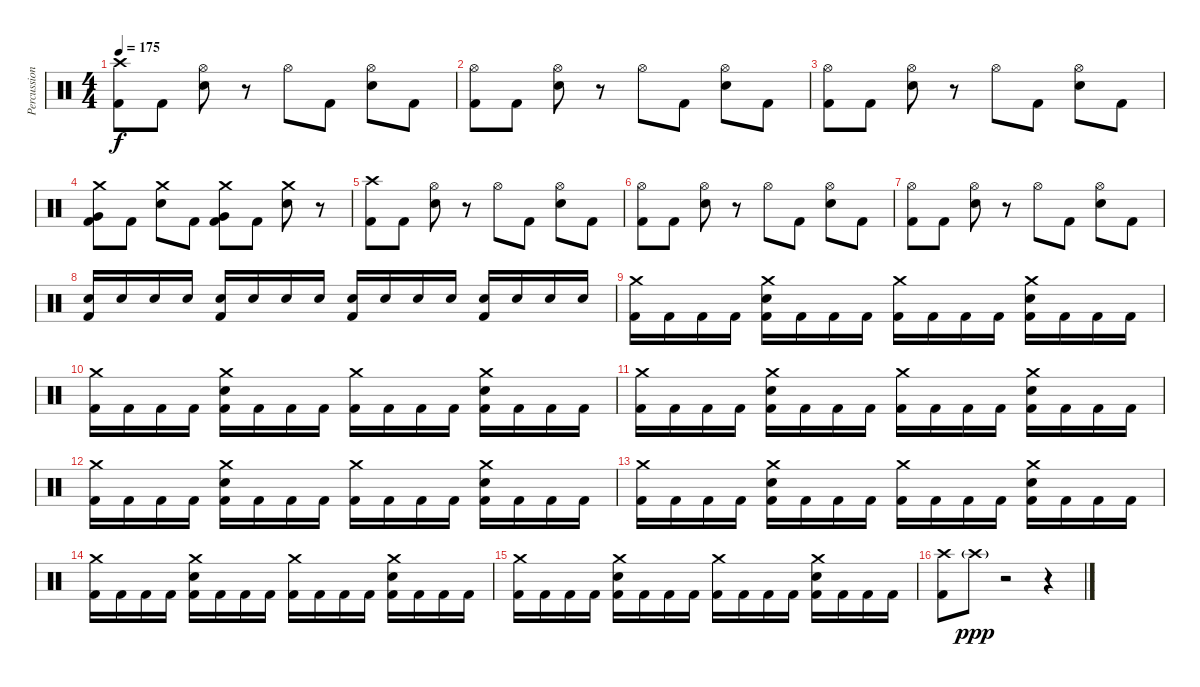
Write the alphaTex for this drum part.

\track ("Percussion" "Percussion") {instrument percussion}
\staff {score}
\articulation defaults
\ts (4 4)
\tempo 175
\clef neutral
\ks c
("Kick (hit) 2" "Crash high (hit)").8{dy f} "Kick (hit) 2".8 ("Electric Snare (hit)" "Hi-Hat (open)").8 r.8 "Hi-Hat (open)".8 "Kick (hit) 2".8 ("Electric Snare (hit)" "Hi-Hat (open)").8 "Kick (hit) 2".8 |
("Kick (hit) 2" "Hi-Hat (open)").8 "Kick (hit) 2".8 ("Electric Snare (hit)" "Hi-Hat (open)").8 r.8 "Hi-Hat (open)".8 "Kick (hit) 2".8 ("Electric Snare (hit)" "Hi-Hat (open)").8 "Kick (hit) 2".8 |
("Kick (hit) 2" "Hi-Hat (open)").8 "Kick (hit) 2".8 ("Electric Snare (hit)" "Hi-Hat (open)").8 r.8 "Hi-Hat (open)".8 "Kick (hit) 2".8 ("Electric Snare (hit)" "Hi-Hat (open)").8 "Kick (hit) 2".8 |
("Kick (hit) 2" "Very Low Tom (hit)" "Crash medium (hit)").8 "Kick (hit) 2".8 ("Electric Snare (hit)" "Crash medium (hit)").8 "Kick (hit) 2".8 ("Kick (hit) 2" "Very Low Tom (hit)" "Crash medium (hit)").8 "Kick (hit) 2".8 ("Electric Snare (hit)" "Crash medium (hit)").8 r.8 |
("Kick (hit) 2" "Crash high (hit)").8 "Kick (hit) 2".8 ("Electric Snare (hit)" "Hi-Hat (open)").8 r.8 "Hi-Hat (open)".8 "Kick (hit) 2".8 ("Electric Snare (hit)" "Hi-Hat (open)").8 "Kick (hit) 2".8 |
("Kick (hit) 2" "Hi-Hat (open)").8 "Kick (hit) 2".8 ("Electric Snare (hit)" "Hi-Hat (open)").8 r.8 "Hi-Hat (open)".8 "Kick (hit) 2".8 ("Electric Snare (hit)" "Hi-Hat (open)").8 "Kick (hit) 2".8 |
("Kick (hit) 2" "Hi-Hat (open)").8 "Kick (hit) 2".8 ("Electric Snare (hit)" "Hi-Hat (open)").8 r.8 "Hi-Hat (open)".8 "Kick (hit) 2".8 ("Electric Snare (hit)" "Hi-Hat (open)").8 "Kick (hit) 2".8 |
("Kick (hit) 2" "Electric Snare (hit)").16 "Electric Snare (hit)".16 "Electric Snare (hit)".16 "Electric Snare (hit)".16 ("Kick (hit) 2" "Electric Snare (hit)").16 "Electric Snare (hit)".16 "Electric Snare (hit)".16 "Electric Snare (hit)".16 ("Kick (hit) 2" "Electric Snare (hit)").16 "Electric Snare (hit)".16 "Electric Snare (hit)".16 "Electric Snare (hit)".16 ("Kick (hit) 2" "Electric Snare (hit)").16 "Electric Snare (hit)".16 "Electric Snare (hit)".16 "Electric Snare (hit)".16 |
("Kick (hit) 2" "Crash medium (hit)").16 "Kick (hit) 2".16 "Kick (hit) 2".16 "Kick (hit) 2".16 ("Kick (hit) 2" "Electric Snare (hit)" "Crash medium (hit)").16 "Kick (hit) 2".16 "Kick (hit) 2".16 "Kick (hit) 2".16 ("Kick (hit) 2" "Crash medium (hit)").16 "Kick (hit) 2".16 "Kick (hit) 2".16 "Kick (hit) 2".16 ("Kick (hit) 2" "Electric Snare (hit)" "Crash medium (hit)").16 "Kick (hit) 2".16 "Kick (hit) 2".16 "Kick (hit) 2".16 |
("Kick (hit) 2" "Crash medium (hit)").16 "Kick (hit) 2".16 "Kick (hit) 2".16 "Kick (hit) 2".16 ("Kick (hit) 2" "Electric Snare (hit)" "Crash medium (hit)").16 "Kick (hit) 2".16 "Kick (hit) 2".16 "Kick (hit) 2".16 ("Kick (hit) 2" "Crash medium (hit)").16 "Kick (hit) 2".16 "Kick (hit) 2".16 "Kick (hit) 2".16 ("Kick (hit) 2" "Electric Snare (hit)" "Crash medium (hit)").16 "Kick (hit) 2".16 "Kick (hit) 2".16 "Kick (hit) 2".16 |
("Kick (hit) 2" "Crash medium (hit)").16 "Kick (hit) 2".16 "Kick (hit) 2".16 "Kick (hit) 2".16 ("Kick (hit) 2" "Electric Snare (hit)" "Crash medium (hit)").16 "Kick (hit) 2".16 "Kick (hit) 2".16 "Kick (hit) 2".16 ("Kick (hit) 2" "Crash medium (hit)").16 "Kick (hit) 2".16 "Kick (hit) 2".16 "Kick (hit) 2".16 ("Kick (hit) 2" "Electric Snare (hit)" "Crash medium (hit)").16 "Kick (hit) 2".16 "Kick (hit) 2".16 "Kick (hit) 2".16 |
("Kick (hit) 2" "Crash medium (hit)").16 "Kick (hit) 2".16 "Kick (hit) 2".16 "Kick (hit) 2".16 ("Kick (hit) 2" "Electric Snare (hit)" "Crash medium (hit)").16 "Kick (hit) 2".16 "Kick (hit) 2".16 "Kick (hit) 2".16 ("Kick (hit) 2" "Crash medium (hit)").16 "Kick (hit) 2".16 "Kick (hit) 2".16 "Kick (hit) 2".16 ("Kick (hit) 2" "Electric Snare (hit)" "Crash medium (hit)").16 "Kick (hit) 2".16 "Kick (hit) 2".16 "Kick (hit) 2".16 |
("Kick (hit) 2" "Crash medium (hit)").16 "Kick (hit) 2".16 "Kick (hit) 2".16 "Kick (hit) 2".16 ("Kick (hit) 2" "Electric Snare (hit)" "Crash medium (hit)").16 "Kick (hit) 2".16 "Kick (hit) 2".16 "Kick (hit) 2".16 ("Kick (hit) 2" "Crash medium (hit)").16 "Kick (hit) 2".16 "Kick (hit) 2".16 "Kick (hit) 2".16 ("Kick (hit) 2" "Electric Snare (hit)" "Crash medium (hit)").16 "Kick (hit) 2".16 "Kick (hit) 2".16 "Kick (hit) 2".16 |
("Kick (hit) 2" "Crash medium (hit)").16 "Kick (hit) 2".16 "Kick (hit) 2".16 "Kick (hit) 2".16 ("Kick (hit) 2" "Electric Snare (hit)" "Crash medium (hit)").16 "Kick (hit) 2".16 "Kick (hit) 2".16 "Kick (hit) 2".16 ("Kick (hit) 2" "Crash medium (hit)").16 "Kick (hit) 2".16 "Kick (hit) 2".16 "Kick (hit) 2".16 ("Kick (hit) 2" "Electric Snare (hit)" "Crash medium (hit)").16 "Kick (hit) 2".16 "Kick (hit) 2".16 "Kick (hit) 2".16 |
("Kick (hit) 2" "Crash medium (hit)").16 "Kick (hit) 2".16 "Kick (hit) 2".16 "Kick (hit) 2".16 ("Kick (hit) 2" "Electric Snare (hit)" "Crash medium (hit)").16 "Kick (hit) 2".16 "Kick (hit) 2".16 "Kick (hit) 2".16 ("Kick (hit) 2" "Crash medium (hit)").16 "Kick (hit) 2".16 "Kick (hit) 2".16 "Kick (hit) 2".16 ("Kick (hit) 2" "Electric Snare (hit)" "Crash medium (hit)").16 "Kick (hit) 2".16 "Kick (hit) 2".16 "Kick (hit) 2".16 |
("Kick (hit) 2" "Crash high (hit)").8 "Crash high (hit)"{g}.8{dy ppp} r.2 r.4
